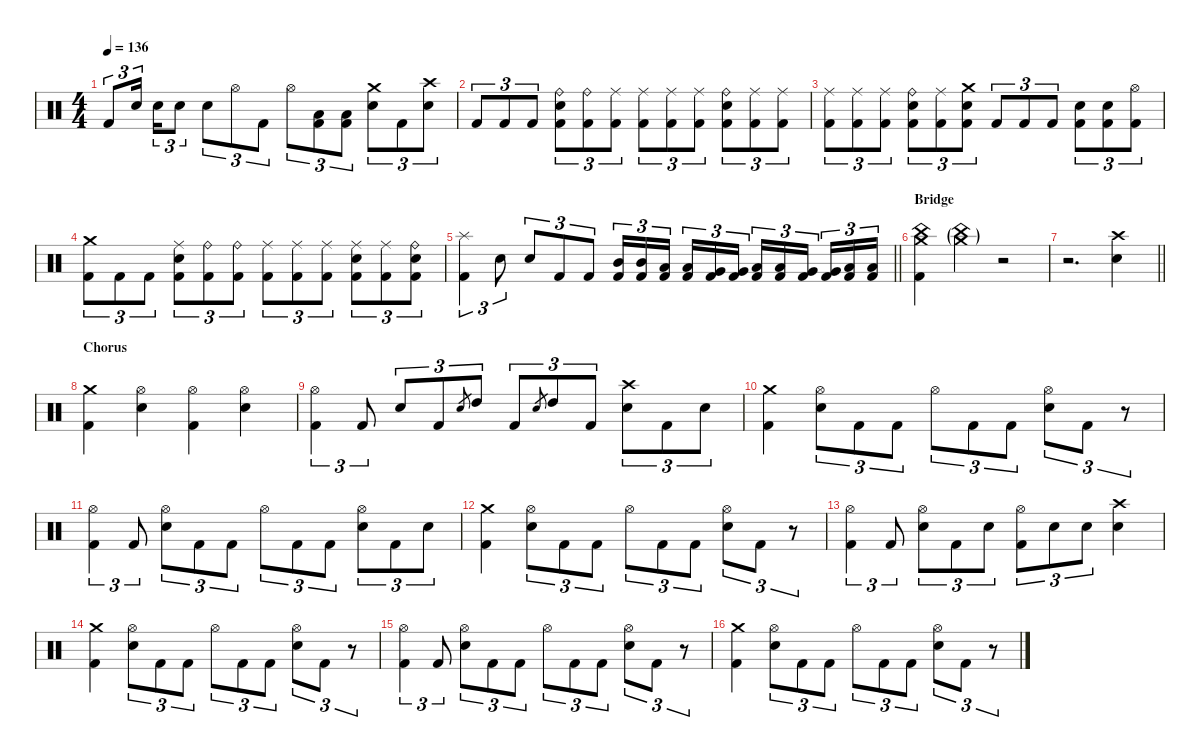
\defaultSystemsLayout 4
\hideDynamics
\bracketExtendMode nobrackets
\singleTrackTrackNamePolicy hidden
\multiTrackTrackNamePolicy hidden
\firstSystemTrackNameMode fullname
\firstSystemTrackNameOrientation horizontal
\otherSystemsTrackNameOrientation horizontal
\track ("Drums" "drm.") {instrument percussion}
\staff {score}
\articulation defaults
\ts (4 4)
\tempo 136
\clef neutral
\ks c "Kick (hit) 2".8{tu (3 2) dy f beam Up} "Snare (hit) 2".16{tu (3 2) dy mp beam Up} "Snare (hit) 2".16{tu (3 2) dy mf beam Down} "Snare (hit) 2".8{tu (3 2) dy f beam Down} "Snare (hit) 2".8{tu (3 2) beam Down} "Hi-Hat (open)".8{tu (3 2) beam Down} "Kick (hit) 2".8{tu (3 2) beam Down} "Hi-Hat (open)".8{tu (3 2) beam Down}
("Low Tom (hit)" "Kick (hit) 2").8{tu (3 2) beam Down} ("Low Tom (hit)" "Kick (hit) 2").8{tu (3 2) beam Down} ("Crash medium (hit)" "Snare (hit) 2").8{tu (3 2) beam Down} "Kick (hit) 2".8{tu (3 2) beam Down} ("Crash high (hit)" "Snare (hit) 2").8{tu (3 2) beam Down} |
"Kick (hit) 2".8{tu (3 2) beam Up} "Kick (hit) 2".8{tu (3 2) beam Up} "Kick (hit) 2".8{tu (3 2) beam Up} ("Ride (bell)" "Snare (hit) 2" "Kick (hit) 2").8{tu (3 2) beam Down} ("Ride (bell)" "Kick (hit) 2").8{tu (3 2) beam Down} ("Ride (middle)" "Kick (hit) 2").8{tu (3 2) beam Down} ("Ride (middle)" "Kick (hit) 2").8{tu (3 2) beam Down} ("Ride (middle)" "Kick (hit) 2").8{tu (3 2) beam Down} ("Ride (middle)" "Kick (hit) 2").8{tu (3 2) beam Down} ("Ride (bell)" "Snare (hit) 2" "Kick (hit) 2").8{tu (3 2) beam Down} ("Ride (middle)" "Kick (hit) 2").8{tu (3 2) beam Down} ("Ride (middle)" "Kick (hit) 2").8{tu (3 2) beam Down} |
("Ride (middle)" "Kick (hit) 2").8{tu (3 2) beam Down} ("Ride (middle)" "Kick (hit) 2").8{tu (3 2) beam Down} ("Ride (middle)" "Kick (hit) 2").8{tu (3 2) beam Down} ("Ride (bell)" "Snare (hit) 2" "Kick (hit) 2").8{tu (3 2) beam Down} ("Ride (middle)" "Kick (hit) 2").8{tu (3 2) beam Down} ("Crash medium (hit)" "Snare (hit) 2" "Kick (hit) 2").8{tu (3 2) beam Down} "Kick (hit) 2".8{tu (3 2) beam Up} "Kick (hit) 2".8{tu (3 2) beam Up} "Kick (hit) 2".8{tu (3 2) beam Up} ("Snare (hit) 2" "Kick (hit) 2").8{tu (3 2) beam Down} ("Snare (hit) 2" "Kick (hit) 2").8{tu (3 2) beam Down} ("Hi-Hat (open)" "Kick (hit) 2").8{tu (3 2) beam Down} |
("Crash medium (hit)" "Kick (hit) 2").8{tu (3 2) beam Down} "Kick (hit) 2".8{tu (3 2) beam Down} "Kick (hit) 2".8{tu (3 2) beam Down} ("Ride (middle)" "Snare (hit) 2" "Kick (hit) 2").8{tu (3 2) beam Down} ("Ride (bell)" "Kick (hit) 2").8{tu (3 2) beam Down} ("Ride (bell)" "Kick (hit) 2").8{tu (3 2) beam Down} ("Ride (middle)" "Kick (hit) 2").8{tu (3 2) beam Down} ("Ride (middle)" "Kick (hit) 2").8{tu (3 2) beam Down} ("Ride (middle)" "Kick (hit) 2").8{tu (3 2) beam Down} ("Ride (middle)" "Snare (hit) 2" "Kick (hit) 2").8{tu (3 2) beam Down} ("Ride (middle)" "Kick (hit) 2").8{tu (3 2) beam Down} ("Ride (bell)" "Snare (hit) 2" "Kick (hit) 2").8{tu (3 2) beam Down} |
\barLineRight lightlight
("Splash (hit)" "Kick (hit) 2").4{tu (3 2) beam Down} "Snare (hit) 2".8{tu (3 2) beam Down} "Snare (hit) 2".8{tu (3 2) beam Up} "Kick (hit) 2".8{tu (3 2) beam Up} "Kick (hit) 2".8{tu (3 2) beam Up} ("Mid Tom (hit)" "Kick (hit) 2").16{tu (3 2) beam Up} ("Mid Tom (hit)" "Kick (hit) 2").16{tu (3 2) beam Up} ("Low Tom (hit)" "Kick (hit) 2").16{tu (3 2) beam Up} ("Low Tom (hit)" "Kick (hit) 2").16{tu (3 2) beam Up} ("Very Low Tom (hit)" "Kick (hit) 2").16{tu (3 2) beam Up} ("Very Low Tom (hit)" "Kick (hit) 2").16{tu (3 2) beam Up} ("Low Tom (hit)" "Kick (hit) 2").16{tu (3 2) beam Up} ("Low Tom (hit)" "Kick (hit) 2").16{tu (3 2) beam Up} ("Very Low Tom (hit)" "Kick (hit) 2").16{tu (3 2) beam Up} ("Very Low Tom (hit)" "Kick (hit) 2").16{tu (3 2) beam Up} ("Low Floor Tom (hit)" "Kick (hit) 2").16{tu (3 2) beam Up} ("Low Floor Tom (hit)" "Kick (hit) 2").16{tu (3 2) beam Up} |
\section ("" "Bridge")
("Crash medium (hit)" "China (hit)" "Kick (hit) 2").4{beam Down} ("Crash medium (hit)"{g} "China (hit)"{g}).4{dy pp beam Down} r.2{beam Down} |
\barLineRight lightlight
r.2{d beam Down} ("Crash high (hit)" "Snare (hit) 2").4{dy f beam Down} |
\section ("" "Chorus")
("Crash medium (hit)" "Kick (hit) 2").4{beam Down} ("Hi-Hat (open)" "Snare (hit) 2").4{beam Down} ("Hi-Hat (open)" "Kick (hit) 2").4{beam Down} ("Hi-Hat (open)" "Snare (hit) 2").4{beam Down} |
("Hi-Hat (open)" "Kick (hit) 2").4{tu (3 2) beam Down} "Kick (hit) 2".8{tu (3 2) beam Up} "Snare (hit) 2".8{tu (3 2) beam Up} "Kick (hit) 2".8{tu (3 2) beam Up} "Electric Snare (hit)".8{gr dy mf beam Up} "High Tom (hit)".8{tu (3 2) dy f beam Up} "Kick (hit) 2".8{tu (3 2) beam Up} "Electric Snare (hit)".8{gr dy mf beam Up} "High Tom (hit)".8{tu (3 2) dy f beam Up} "Kick (hit) 2".8{tu (3 2) beam Up} ("Crash high (hit)" "Snare (hit) 2").8{tu (3 2) beam Down} "Kick (hit) 2".8{tu (3 2) beam Down} "Snare (hit) 2".8{tu (3 2) beam Down} |
("Crash medium (hit)" "Kick (hit) 2").4{beam Down} ("Hi-Hat (open)" "Snare (hit) 2").8{tu (3 2) beam Down} "Kick (hit) 2".8{tu (3 2) beam Down} "Kick (hit) 2".8{tu (3 2) beam Down} "Hi-Hat (open)".8{tu (3 2) beam Down} "Kick (hit) 2".8{tu (3 2) beam Down} "Kick (hit) 2".8{tu (3 2) beam Down} ("Hi-Hat (open)" "Snare (hit) 2").8{tu (3 2) beam Down} "Kick (hit) 2".8{tu (3 2) beam Down} r.8{tu (3 2) beam Down} |
("Hi-Hat (open)" "Kick (hit) 2").4{tu (3 2) beam Down} "Kick (hit) 2".8{tu (3 2) beam Up} ("Hi-Hat (open)" "Snare (hit) 2").8{tu (3 2) beam Down} "Kick (hit) 2".8{tu (3 2) beam Down} "Kick (hit) 2".8{tu (3 2) beam Down} "Hi-Hat (open)".8{tu (3 2) beam Down} "Kick (hit) 2".8{tu (3 2) beam Down} "Kick (hit) 2".8{tu (3 2) beam Down} ("Hi-Hat (open)" "Snare (hit) 2").8{tu (3 2) beam Down} "Kick (hit) 2".8{tu (3 2) beam Down} "Snare (hit) 2".8{tu (3 2) beam Down} |
("Crash medium (hit)" "Kick (hit) 2").4{beam Down} ("Hi-Hat (open)" "Snare (hit) 2").8{tu (3 2) beam Down} "Kick (hit) 2".8{tu (3 2) beam Down} "Kick (hit) 2".8{tu (3 2) beam Down} "Hi-Hat (open)".8{tu (3 2) beam Down} "Kick (hit) 2".8{tu (3 2) beam Down} "Kick (hit) 2".8{tu (3 2) beam Down} ("Hi-Hat (open)" "Snare (hit) 2").8{tu (3 2) beam Down} "Kick (hit) 2".8{tu (3 2) beam Down} r.8{tu (3 2) beam Down} |
("Hi-Hat (open)" "Kick (hit) 2").4{tu (3 2) beam Down} "Kick (hit) 2".8{tu (3 2) beam Up} ("Hi-Hat (open)" "Snare (hit) 2").8{tu (3 2) beam Down} "Kick (hit) 2".8{tu (3 2) beam Down} "Snare (hit) 2".8{tu (3 2) beam Down} ("Hi-Hat (open)" "Kick (hit) 2").8{tu (3 2) beam Down} "Snare (hit) 2".8{tu (3 2) beam Down} "Snare (hit) 2".8{tu (3 2) beam Down} ("Crash high (hit)" "Snare (hit) 2").4{beam Down} |
("Crash medium (hit)" "Kick (hit) 2").4{beam Down} ("Hi-Hat (open)" "Snare (hit) 2").8{tu (3 2) beam Down} "Kick (hit) 2".8{tu (3 2) beam Down} "Kick (hit) 2".8{tu (3 2) beam Down} "Hi-Hat (open)".8{tu (3 2) beam Down} "Kick (hit) 2".8{tu (3 2) beam Down} "Kick (hit) 2".8{tu (3 2) beam Down} ("Hi-Hat (open)" "Snare (hit) 2").8{tu (3 2) beam Down} "Kick (hit) 2".8{tu (3 2) beam Down} r.8{tu (3 2) beam Down} |
("Hi-Hat (open)" "Kick (hit) 2").4{tu (3 2) beam Down} "Kick (hit) 2".8{tu (3 2) beam Up} ("Hi-Hat (open)" "Snare (hit) 2").8{tu (3 2) beam Down} "Kick (hit) 2".8{tu (3 2) beam Down} "Kick (hit) 2".8{tu (3 2) beam Down} "Hi-Hat (open)".8{tu (3 2) beam Down} "Kick (hit) 2".8{tu (3 2) beam Down} "Kick (hit) 2".8{tu (3 2) beam Down} ("Hi-Hat (open)" "Snare (hit) 2").8{tu (3 2) beam Down} "Kick (hit) 2".8{tu (3 2) beam Down} r.8{tu (3 2) beam Down} |
("Crash medium (hit)" "Kick (hit) 2").4{beam Down} ("Hi-Hat (open)" "Snare (hit) 2").8{tu (3 2) beam Down} "Kick (hit) 2".8{tu (3 2) beam Down} "Kick (hit) 2".8{tu (3 2) beam Down} "Hi-Hat (open)".8{tu (3 2) beam Down} "Kick (hit) 2".8{tu (3 2) beam Down} "Kick (hit) 2".8{tu (3 2) beam Down} ("Hi-Hat (open)" "Snare (hit) 2").8{tu (3 2) beam Down} "Kick (hit) 2".8{tu (3 2) beam Down} r.8{tu (3 2) beam Down}
